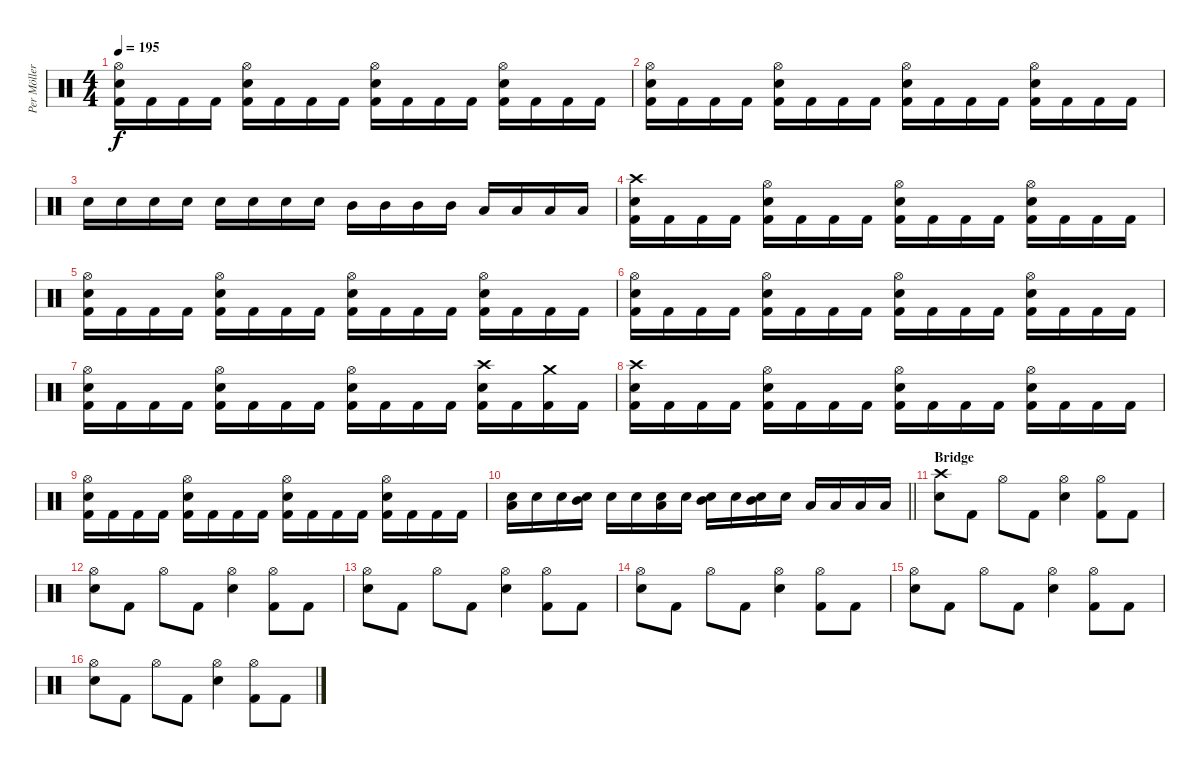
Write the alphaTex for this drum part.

\track ("Per Möller Jensen" "Per Möller") {instrument percussion}
\staff {score}
\articulation defaults
\ts (4 4)
\tempo 195
\clef neutral
\ks c
("Hi-Hat (open)" "Snare (hit) 2" "Kick (hit) 2").16{dy f} "Kick (hit) 2".16 "Kick (hit) 2".16 "Kick (hit) 2".16 ("Hi-Hat (open)" "Snare (hit) 2" "Kick (hit) 2").16 "Kick (hit) 2".16 "Kick (hit) 2".16 "Kick (hit) 2".16 ("Hi-Hat (open)" "Snare (hit) 2" "Kick (hit) 2").16 "Kick (hit) 2".16 "Kick (hit) 2".16 "Kick (hit) 2".16 ("Hi-Hat (open)" "Snare (hit) 2" "Kick (hit) 2").16 "Kick (hit) 2".16 "Kick (hit) 2".16 "Kick (hit) 2".16 |
("Hi-Hat (open)" "Snare (hit) 2" "Kick (hit) 2").16 "Kick (hit) 2".16 "Kick (hit) 2".16 "Kick (hit) 2".16 ("Hi-Hat (open)" "Snare (hit) 2" "Kick (hit) 2").16 "Kick (hit) 2".16 "Kick (hit) 2".16 "Kick (hit) 2".16 ("Hi-Hat (open)" "Snare (hit) 2" "Kick (hit) 2").16 "Kick (hit) 2".16 "Kick (hit) 2".16 "Kick (hit) 2".16 ("Hi-Hat (open)" "Snare (hit) 2" "Kick (hit) 2").16 "Kick (hit) 2".16 "Kick (hit) 2".16 "Kick (hit) 2".16 |
"Snare (hit) 2".16 "Snare (hit) 2".16 "Snare (hit) 2".16 "Snare (hit) 2".16 "Snare (hit) 2".16 "Snare (hit) 2".16 "Snare (hit) 2".16 "Snare (hit) 2".16 "Mid Tom (hit)".16 "Mid Tom (hit)".16 "Mid Tom (hit)".16 "Mid Tom (hit)".16 "Low Tom (hit)".16 "Low Tom (hit)".16 "Low Tom (hit)".16 "Low Tom (hit)".16 |
("Crash high (hit)" "Snare (hit) 2" "Kick (hit) 2").16 "Kick (hit) 2".16 "Kick (hit) 2".16 "Kick (hit) 2".16 ("Hi-Hat (open)" "Snare (hit) 2" "Kick (hit) 2").16 "Kick (hit) 2".16 "Kick (hit) 2".16 "Kick (hit) 2".16 ("Hi-Hat (open)" "Snare (hit) 2" "Kick (hit) 2").16 "Kick (hit) 2".16 "Kick (hit) 2".16 "Kick (hit) 2".16 ("Hi-Hat (open)" "Snare (hit) 2" "Kick (hit) 2").16 "Kick (hit) 2".16 "Kick (hit) 2".16 "Kick (hit) 2".16 |
("Hi-Hat (open)" "Snare (hit) 2" "Kick (hit) 2").16 "Kick (hit) 2".16 "Kick (hit) 2".16 "Kick (hit) 2".16 ("Hi-Hat (open)" "Snare (hit) 2" "Kick (hit) 2").16 "Kick (hit) 2".16 "Kick (hit) 2".16 "Kick (hit) 2".16 ("Hi-Hat (open)" "Snare (hit) 2" "Kick (hit) 2").16 "Kick (hit) 2".16 "Kick (hit) 2".16 "Kick (hit) 2".16 ("Hi-Hat (open)" "Snare (hit) 2" "Kick (hit) 2").16 "Kick (hit) 2".16 "Kick (hit) 2".16 "Kick (hit) 2".16 |
("Hi-Hat (open)" "Snare (hit) 2" "Kick (hit) 2").16 "Kick (hit) 2".16 "Kick (hit) 2".16 "Kick (hit) 2".16 ("Hi-Hat (open)" "Snare (hit) 2" "Kick (hit) 2").16 "Kick (hit) 2".16 "Kick (hit) 2".16 "Kick (hit) 2".16 ("Hi-Hat (open)" "Snare (hit) 2" "Kick (hit) 2").16 "Kick (hit) 2".16 "Kick (hit) 2".16 "Kick (hit) 2".16 ("Hi-Hat (open)" "Snare (hit) 2" "Kick (hit) 2").16 "Kick (hit) 2".16 "Kick (hit) 2".16 "Kick (hit) 2".16 |
("Hi-Hat (open)" "Snare (hit) 2" "Kick (hit) 2").16 "Kick (hit) 2".16 "Kick (hit) 2".16 "Kick (hit) 2".16 ("Hi-Hat (open)" "Snare (hit) 2" "Kick (hit) 2").16 "Kick (hit) 2".16 "Kick (hit) 2".16 "Kick (hit) 2".16 ("Hi-Hat (open)" "Snare (hit) 2" "Kick (hit) 2").16 "Kick (hit) 2".16 "Kick (hit) 2".16 "Kick (hit) 2".16 ("Crash high (hit)" "Snare (hit) 2" "Kick (hit) 2").16 "Kick (hit) 2".16 ("Crash medium (hit)" "Kick (hit) 2").16 "Kick (hit) 2".16 |
("Crash high (hit)" "Snare (hit) 2" "Kick (hit) 2").16 "Kick (hit) 2".16 "Kick (hit) 2".16 "Kick (hit) 2".16 ("Hi-Hat (open)" "Snare (hit) 2" "Kick (hit) 2").16 "Kick (hit) 2".16 "Kick (hit) 2".16 "Kick (hit) 2".16 ("Hi-Hat (open)" "Snare (hit) 2" "Kick (hit) 2").16 "Kick (hit) 2".16 "Kick (hit) 2".16 "Kick (hit) 2".16 ("Hi-Hat (open)" "Snare (hit) 2" "Kick (hit) 2").16 "Kick (hit) 2".16 "Kick (hit) 2".16 "Kick (hit) 2".16 |
("Hi-Hat (open)" "Snare (hit) 2" "Kick (hit) 2").16 "Kick (hit) 2".16 "Kick (hit) 2".16 "Kick (hit) 2".16 ("Hi-Hat (open)" "Snare (hit) 2" "Kick (hit) 2").16 "Kick (hit) 2".16 "Kick (hit) 2".16 "Kick (hit) 2".16 ("Hi-Hat (open)" "Snare (hit) 2" "Kick (hit) 2").16 "Kick (hit) 2".16 "Kick (hit) 2".16 "Kick (hit) 2".16 ("Hi-Hat (open)" "Snare (hit) 2" "Kick (hit) 2").16 "Kick (hit) 2".16 "Kick (hit) 2".16 "Kick (hit) 2".16 |
\barLineRight lightlight
("Low Tom (hit)" "Snare (hit) 2").16 "Snare (hit) 2".16 "Snare (hit) 2".16 ("Mid Tom (hit)" "Snare (hit) 2").16 "Snare (hit) 2".16 "Snare (hit) 2".16 ("Low Tom (hit)" "Snare (hit) 2").16 "Snare (hit) 2".16 ("Mid Tom (hit)" "Snare (hit) 2").16 "Snare (hit) 2".16 ("Mid Tom (hit)" "Snare (hit) 2").16 "Snare (hit) 2".16 "Low Tom (hit)".16 "Low Tom (hit)".16 "Low Floor Tom (hit)".16 "Low Floor Tom (hit)".16 |
\section ("" "Bridge")
("Crash high (hit)" "Snare (hit) 2").8 "Kick (hit) 2".8 "Hi-Hat (open)".8 "Kick (hit) 2".8 ("Hi-Hat (open)" "Snare (hit) 2").4 ("Hi-Hat (open)" "Kick (hit) 2").8 "Kick (hit) 2".8 |
("Hi-Hat (open)" "Snare (hit) 2").8 "Kick (hit) 2".8 "Hi-Hat (open)".8 "Kick (hit) 2".8 ("Hi-Hat (open)" "Snare (hit) 2").4 ("Hi-Hat (open)" "Kick (hit) 2").8 "Kick (hit) 2".8 |
("Hi-Hat (open)" "Snare (hit) 2").8 "Kick (hit) 2".8 "Hi-Hat (open)".8 "Kick (hit) 2".8 ("Hi-Hat (open)" "Snare (hit) 2").4 ("Hi-Hat (open)" "Kick (hit) 2").8 "Kick (hit) 2".8 |
("Hi-Hat (open)" "Snare (hit) 2").8 "Kick (hit) 2".8 "Hi-Hat (open)".8 "Kick (hit) 2".8 ("Hi-Hat (open)" "Snare (hit) 2").4 ("Hi-Hat (open)" "Kick (hit) 2").8 "Kick (hit) 2".8 |
("Hi-Hat (open)" "Snare (hit) 2").8 "Kick (hit) 2".8 "Hi-Hat (open)".8 "Kick (hit) 2".8 ("Hi-Hat (open)" "Snare (hit) 2").4 ("Hi-Hat (open)" "Kick (hit) 2").8 "Kick (hit) 2".8 |
("Hi-Hat (open)" "Snare (hit) 2").8 "Kick (hit) 2".8 "Hi-Hat (open)".8 "Kick (hit) 2".8 ("Hi-Hat (open)" "Snare (hit) 2").4 ("Hi-Hat (open)" "Kick (hit) 2").8 "Kick (hit) 2".8
